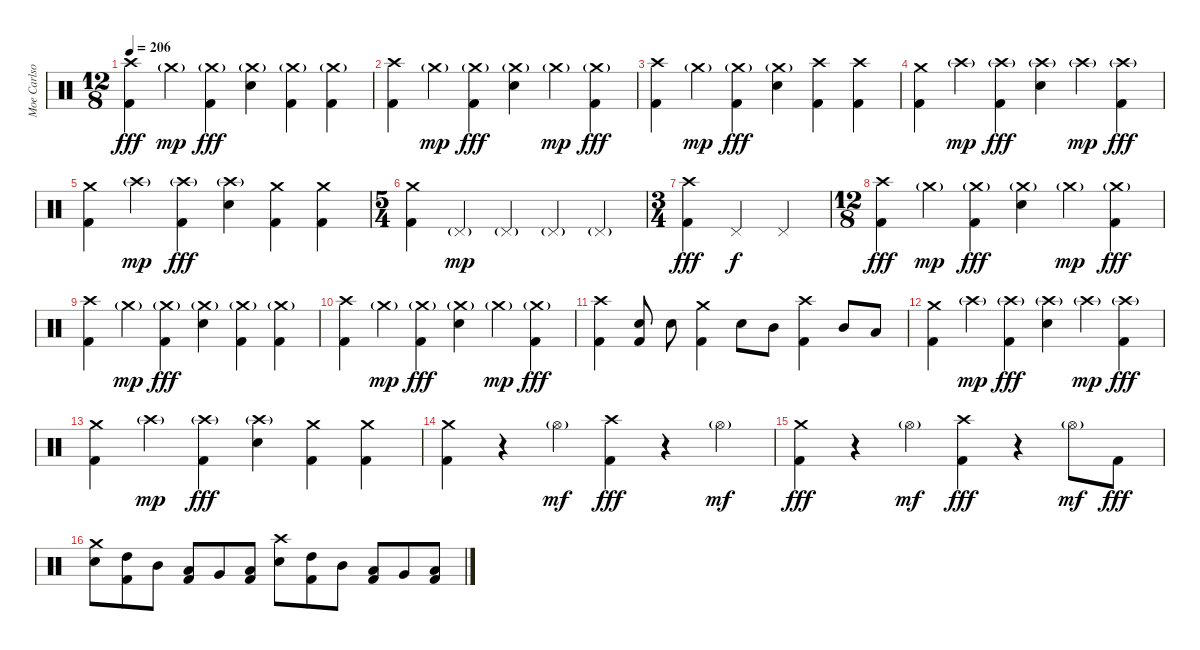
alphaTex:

\track ("Moe Carlson" "Moe Carlso") {instrument percussion}
\staff {score}
\articulation defaults
\ts (12 8)
\tempo 206
\clef neutral
\ks c
("Crash high (hit)" "Kick (hit) 2").4{dy fff} "Crash medium (hit)"{g}.4{dy mp} ("Crash medium (hit)"{g} "Kick (hit) 2").4{dy fff} ("Crash medium (hit)"{g} "Electric Snare (hit)").4 ("Crash medium (hit)"{g} "Kick (hit) 2").4 ("Crash medium (hit)"{g} "Kick (hit) 2").4 |
("Crash high (hit)" "Kick (hit) 2").4 "Crash medium (hit)"{g}.4{dy mp} ("Crash medium (hit)"{g} "Kick (hit) 2").4{dy fff} ("Crash medium (hit)"{g} "Electric Snare (hit)").4 "Crash medium (hit)"{g}.4{dy mp} ("Crash medium (hit)"{g} "Kick (hit) 2").4{dy fff} |
("Crash high (hit)" "Kick (hit) 2").4 "Crash medium (hit)"{g}.4{dy mp} ("Crash medium (hit)"{g} "Kick (hit) 2").4{dy fff} ("Crash medium (hit)"{g} "Electric Snare (hit)").4 ("Crash high (hit)" "Kick (hit) 2").4 ("Crash high (hit)" "Kick (hit) 2").4 |
("Crash medium (hit)" "Kick (hit) 2").4 "Crash high (hit)"{g}.4{dy mp} ("Crash high (hit)"{g} "Kick (hit) 2").4{dy fff} ("Crash high (hit)"{g} "Electric Snare (hit)").4 "Crash high (hit)"{g}.4{dy mp} ("Crash high (hit)"{g} "Kick (hit) 2").4{dy fff} |
("Crash medium (hit)" "Kick (hit) 2").4 "Crash high (hit)"{g}.4{dy mp} ("Crash high (hit)"{g} "Kick (hit) 2").4{dy fff} ("Crash high (hit)"{g} "Electric Snare (hit)").4 ("Crash medium (hit)" "Kick (hit) 2").4 ("Crash medium (hit)" "Kick (hit) 2").4 |
\ts (5 4)
("Crash medium (hit)" "Kick (hit) 2").4 "Pedal Hi-Hat (hit)"{g}.4{dy mp} "Pedal Hi-Hat (hit)"{g}.4 "Pedal Hi-Hat (hit)"{g}.4 "Pedal Hi-Hat (hit)"{g}.4 |
\ts (3 4)
("Crash high (hit)" "Kick (hit) 2").4{dy fff} "Pedal Hi-Hat (hit)".4{dy f} "Pedal Hi-Hat (hit)".4 |
\ts (12 8)
("Crash high (hit)" "Kick (hit) 2").4{dy fff} "Crash medium (hit)"{g}.4{dy mp} ("Crash medium (hit)"{g} "Kick (hit) 2").4{dy fff} ("Crash medium (hit)"{g} "Electric Snare (hit)").4 "Crash medium (hit)"{g}.4{dy mp} ("Crash medium (hit)"{g} "Kick (hit) 2").4{dy fff} |
("Crash high (hit)" "Kick (hit) 2").4 "Crash medium (hit)"{g}.4{dy mp} ("Crash medium (hit)"{g} "Kick (hit) 2").4{dy fff} ("Crash medium (hit)"{g} "Electric Snare (hit)").4 ("Crash medium (hit)"{g} "Kick (hit) 2").4 ("Crash medium (hit)"{g} "Kick (hit) 2").4 |
("Crash high (hit)" "Kick (hit) 2").4 "Crash medium (hit)"{g}.4{dy mp} ("Crash medium (hit)"{g} "Kick (hit) 2").4{dy fff} ("Crash medium (hit)"{g} "Electric Snare (hit)").4 "Crash medium (hit)"{g}.4{dy mp} ("Crash medium (hit)"{g} "Kick (hit) 2").4{dy fff} |
("Crash high (hit)" "Kick (hit) 2").4 ("Electric Snare (hit)" "Kick (hit) 2").8 "Electric Snare (hit)".8 ("Crash medium (hit)" "Kick (hit) 2").4 "Electric Snare (hit)".8 "Mid Tom (hit)".8 ("Crash high (hit)" "Kick (hit) 2").4 "Mid Tom (hit)".8 "Low Tom (hit)".8 |
("Crash medium (hit)" "Kick (hit) 2").4 "Crash high (hit)"{g}.4{dy mp} ("Crash high (hit)"{g} "Kick (hit) 2").4{dy fff} ("Crash high (hit)"{g} "Electric Snare (hit)").4 "Crash high (hit)"{g}.4{dy mp} ("Crash high (hit)"{g} "Kick (hit) 2").4{dy fff} |
("Crash medium (hit)" "Kick (hit) 2").4 "Crash high (hit)"{g}.4{dy mp} ("Crash high (hit)"{g} "Kick (hit) 2").4{dy fff} ("Crash high (hit)"{g} "Electric Snare (hit)").4 ("Crash medium (hit)" "Kick (hit) 2").4 ("Crash medium (hit)" "Kick (hit) 2").4 |
("Crash medium (hit)" "Kick (hit) 2").4 r.4 "Hi-Hat (open)"{g}.4{dy mf} ("Crash high (hit)" "Kick (hit) 2").4{dy fff} r.4 "Hi-Hat (open)"{g}.4{dy mf} |
("Crash medium (hit)" "Kick (hit) 2").4{dy fff} r.4 "Hi-Hat (open)"{g}.4{dy mf} ("Crash high (hit)" "Kick (hit) 2").4{dy fff} r.4 "Hi-Hat (open)"{g}.8{dy mf} "Kick (hit) 2".8{dy fff} |
("Crash medium (hit)" "Electric Snare (hit)").8 ("High Tom (hit)" "Kick (hit) 2").8 "Mid Tom (hit)".8 ("Low Tom (hit)" "Kick (hit) 2").8 "Very Low Tom (hit)".8 ("Low Floor Tom (hit)" "Kick (hit) 2").8 ("Crash high (hit)" "Electric Snare (hit)").8 ("High Tom (hit)" "Kick (hit) 2").8 "Mid Tom (hit)".8 ("Low Tom (hit)" "Kick (hit) 2").8 "Very Low Tom (hit)".8 ("Low Floor Tom (hit)" "Kick (hit) 2").8
